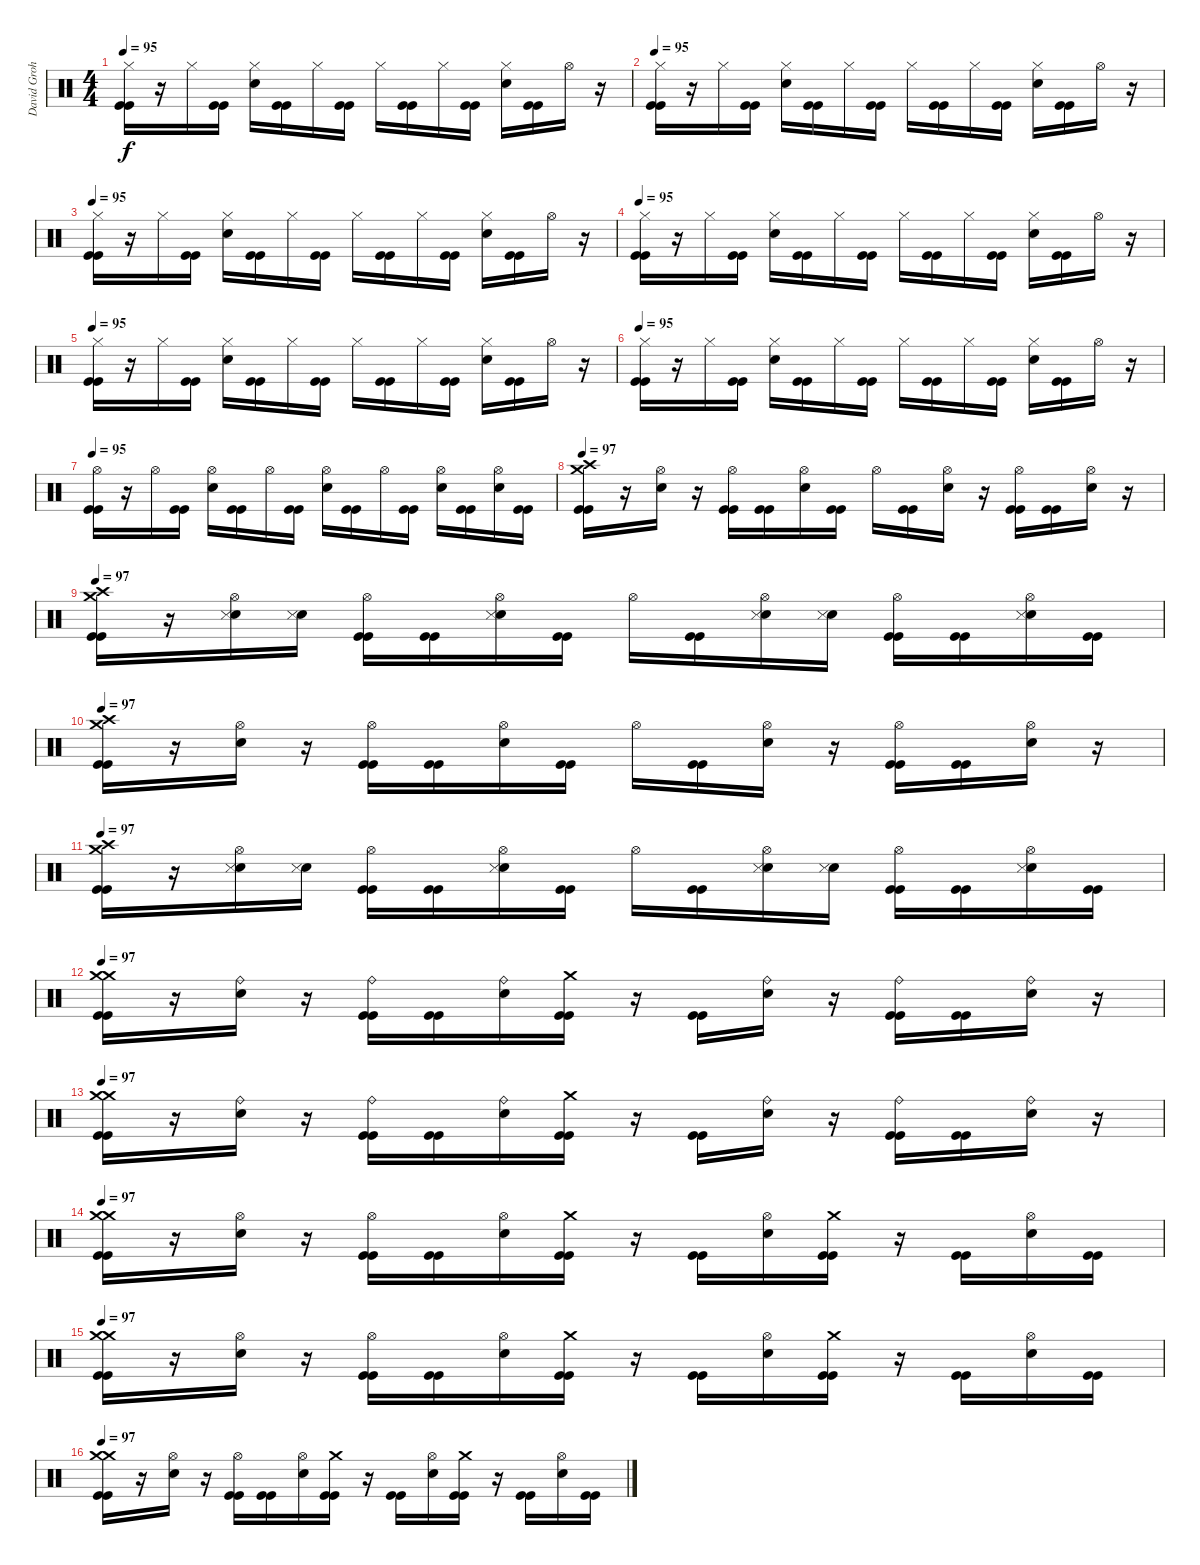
\track ("David Grohl/Alfredo Ortiz" "David Groh") {instrument percussion}
\staff {score}
\articulation defaults
\ts (4 4)
\tempo 95
\clef neutral
\ks c
("Hi-Hat (closed)" "Kick (hit)" "Kick (hit)").16{dy f} r.16 "Hi-Hat (closed)".16 ("Kick (hit)" "Kick (hit)").16 ("Hi-Hat (closed)" "Snare (hit) 2").16 ("Kick (hit)" "Kick (hit)").16 "Hi-Hat (closed)".16 ("Kick (hit)" "Kick (hit)").16 "Hi-Hat (closed)".16 ("Kick (hit)" "Kick (hit)").16 "Hi-Hat (closed)".16 ("Kick (hit)" "Kick (hit)").16 ("Hi-Hat (closed)" "Snare (hit) 2").16 ("Kick (hit)" "Kick (hit)").16 "Hi-Hat (open)".16 r.16 |
\tempo 95
("Hi-Hat (closed)" "Kick (hit)" "Kick (hit)").16 r.16 "Hi-Hat (closed)".16 ("Kick (hit)" "Kick (hit)").16 ("Hi-Hat (closed)" "Snare (hit) 2").16 ("Kick (hit)" "Kick (hit)").16 "Hi-Hat (closed)".16 ("Kick (hit)" "Kick (hit)").16 "Hi-Hat (closed)".16 ("Kick (hit)" "Kick (hit)").16 "Hi-Hat (closed)".16 ("Kick (hit)" "Kick (hit)").16 ("Hi-Hat (closed)" "Snare (hit) 2").16 ("Kick (hit)" "Kick (hit)").16 "Hi-Hat (open)".16 r.16 |
\tempo 95
("Hi-Hat (closed)" "Kick (hit)" "Kick (hit)").16 r.16 "Hi-Hat (closed)".16 ("Kick (hit)" "Kick (hit)").16 ("Hi-Hat (closed)" "Snare (hit) 2").16 ("Kick (hit)" "Kick (hit)").16 "Hi-Hat (closed)".16 ("Kick (hit)" "Kick (hit)").16 "Hi-Hat (closed)".16 ("Kick (hit)" "Kick (hit)").16 "Hi-Hat (closed)".16 ("Kick (hit)" "Kick (hit)").16 ("Hi-Hat (closed)" "Snare (hit) 2").16 ("Kick (hit)" "Kick (hit)").16 "Hi-Hat (open)".16 r.16 |
\tempo 95
("Hi-Hat (closed)" "Kick (hit)" "Kick (hit)").16 r.16 "Hi-Hat (closed)".16 ("Kick (hit)" "Kick (hit)").16 ("Hi-Hat (closed)" "Snare (hit) 2").16 ("Kick (hit)" "Kick (hit)").16 "Hi-Hat (closed)".16 ("Kick (hit)" "Kick (hit)").16 "Hi-Hat (closed)".16 ("Kick (hit)" "Kick (hit)").16 "Hi-Hat (closed)".16 ("Kick (hit)" "Kick (hit)").16 ("Hi-Hat (closed)" "Snare (hit) 2").16 ("Kick (hit)" "Kick (hit)").16 "Hi-Hat (open)".16 r.16 |
\tempo 95
("Hi-Hat (closed)" "Kick (hit)" "Kick (hit)").16 r.16 "Hi-Hat (closed)".16 ("Kick (hit)" "Kick (hit)").16 ("Hi-Hat (closed)" "Snare (hit) 2").16 ("Kick (hit)" "Kick (hit)").16 "Hi-Hat (closed)".16 ("Kick (hit)" "Kick (hit)").16 "Hi-Hat (closed)".16 ("Kick (hit)" "Kick (hit)").16 "Hi-Hat (closed)".16 ("Kick (hit)" "Kick (hit)").16 ("Hi-Hat (closed)" "Snare (hit) 2").16 ("Kick (hit)" "Kick (hit)").16 "Hi-Hat (open)".16 r.16 |
\tempo 95
("Hi-Hat (closed)" "Kick (hit)" "Kick (hit)").16 r.16 "Hi-Hat (closed)".16 ("Kick (hit)" "Kick (hit)").16 ("Hi-Hat (closed)" "Snare (hit) 2").16 ("Kick (hit)" "Kick (hit)").16 "Hi-Hat (closed)".16 ("Kick (hit)" "Kick (hit)").16 "Hi-Hat (closed)".16 ("Kick (hit)" "Kick (hit)").16 "Hi-Hat (closed)".16 ("Kick (hit)" "Kick (hit)").16 ("Hi-Hat (closed)" "Snare (hit) 2").16 ("Kick (hit)" "Kick (hit)").16 "Hi-Hat (open)".16 r.16 |
\tempo 95
("Hi-Hat (open)" "Kick (hit)" "Kick (hit)").16 r.16 "Hi-Hat (open)".16 ("Kick (hit)" "Kick (hit)").16 ("Hi-Hat (open)" "Snare (hit) 2").16 ("Kick (hit)" "Kick (hit)").16 "Hi-Hat (open)".16 ("Kick (hit)" "Kick (hit)").16 ("Hi-Hat (open)" "Snare (hit) 2").16 ("Kick (hit)" "Kick (hit)").16 "Hi-Hat (open)".16 ("Kick (hit)" "Kick (hit)").16 ("Hi-Hat (open)" "Snare (hit) 2").16 ("Kick (hit)" "Kick (hit)").16 ("Hi-Hat (open)" "Snare (hit) 2").16 ("Kick (hit)" "Kick (hit)").16 |
\tempo 97
("Crash medium (hit)" "Crash high (hit)" "Kick (hit)" "Kick (hit)").16 r.16 ("Hi-Hat (open)" "Snare (hit) 2").16 r.16 ("Hi-Hat (open)" "Kick (hit)" "Kick (hit)").16 ("Kick (hit)" "Kick (hit)").16 ("Hi-Hat (open)" "Snare (hit) 2").16 ("Kick (hit)" "Kick (hit)").16 "Hi-Hat (open)".16 ("Kick (hit)" "Kick (hit)").16 ("Hi-Hat (open)" "Snare (hit) 2").16 r.16 ("Hi-Hat (open)" "Kick (hit)" "Kick (hit)").16 ("Kick (hit)" "Kick (hit)").16 ("Hi-Hat (open)" "Snare (hit) 2").16 r.16 |
\tempo 97
("Crash medium (hit)" "Crash high (hit)" "Kick (hit)" "Kick (hit)").16 r.16 ("Hi-Hat (open)" "Hand Clap (hit)" "Snare (side stick) 3").16 ("Hand Clap (hit)" "Snare (side stick) 3").16 ("Hi-Hat (open)" "Kick (hit)" "Kick (hit)").16 ("Kick (hit)" "Kick (hit)").16 ("Hi-Hat (open)" "Hand Clap (hit)" "Snare (side stick) 3").16 ("Kick (hit)" "Kick (hit)").16 "Hi-Hat (open)".16 ("Kick (hit)" "Kick (hit)").16 ("Hi-Hat (open)" "Hand Clap (hit)" "Snare (side stick) 3").16 ("Hand Clap (hit)" "Snare (side stick) 3").16 ("Hi-Hat (open)" "Kick (hit)" "Kick (hit)").16 ("Kick (hit)" "Kick (hit)").16 ("Hi-Hat (open)" "Hand Clap (hit)" "Snare (side stick) 3").16 ("Kick (hit)" "Kick (hit)").16 |
\tempo 97
("Crash medium (hit)" "Crash high (hit)" "Kick (hit)" "Kick (hit)").16 r.16 ("Hi-Hat (open)" "Snare (hit) 2").16 r.16 ("Hi-Hat (open)" "Kick (hit)" "Kick (hit)").16 ("Kick (hit)" "Kick (hit)").16 ("Hi-Hat (open)" "Snare (hit) 2").16 ("Kick (hit)" "Kick (hit)").16 "Hi-Hat (open)".16 ("Kick (hit)" "Kick (hit)").16 ("Hi-Hat (open)" "Snare (hit) 2").16 r.16 ("Hi-Hat (open)" "Kick (hit)" "Kick (hit)").16 ("Kick (hit)" "Kick (hit)").16 ("Hi-Hat (open)" "Snare (hit) 2").16 r.16 |
\tempo 97
("Crash medium (hit)" "Crash high (hit)" "Kick (hit)" "Kick (hit)").16 r.16 ("Hi-Hat (open)" "Hand Clap (hit)" "Snare (side stick) 3").16 ("Hand Clap (hit)" "Snare (side stick) 3").16 ("Hi-Hat (open)" "Kick (hit)" "Kick (hit)").16 ("Kick (hit)" "Kick (hit)").16 ("Hi-Hat (open)" "Hand Clap (hit)" "Snare (side stick) 3").16 ("Kick (hit)" "Kick (hit)").16 "Hi-Hat (open)".16 ("Kick (hit)" "Kick (hit)").16 ("Hi-Hat (open)" "Hand Clap (hit)" "Snare (side stick) 3").16 ("Hand Clap (hit)" "Snare (side stick) 3").16 ("Hi-Hat (open)" "Kick (hit)" "Kick (hit)").16 ("Kick (hit)" "Kick (hit)").16 ("Hi-Hat (open)" "Hand Clap (hit)" "Snare (side stick) 3").16 ("Kick (hit)" "Kick (hit)").16 |
\tempo 97
("Crash medium (hit)" "Crash medium (hit)" "Kick (hit)" "Kick (hit)").16 r.16 ("Ride (bell)" "Snare (hit) 2").16 r.16 ("Ride (bell)" "Kick (hit)" "Kick (hit)").16 ("Kick (hit)" "Kick (hit)").16 ("Ride (bell)" "Snare (hit) 2").16 ("Crash medium (hit)" "Kick (hit)" "Kick (hit)").16 r.16 ("Kick (hit)" "Kick (hit)").16 ("Ride (bell)" "Snare (hit) 2").16 r.16 ("Ride (bell)" "Kick (hit)" "Kick (hit)").16 ("Kick (hit)" "Kick (hit)").16 ("Ride (bell)" "Snare (hit) 2").16 r.16 |
\tempo 97
("Crash medium (hit)" "Crash medium (hit)" "Kick (hit)" "Kick (hit)").16 r.16 ("Ride (bell)" "Snare (hit) 2").16 r.16 ("Ride (bell)" "Kick (hit)" "Kick (hit)").16 ("Kick (hit)" "Kick (hit)").16 ("Ride (bell)" "Snare (hit) 2").16 ("Crash medium (hit)" "Kick (hit)" "Kick (hit)").16 r.16 ("Kick (hit)" "Kick (hit)").16 ("Ride (bell)" "Snare (hit) 2").16 r.16 ("Ride (bell)" "Kick (hit)" "Kick (hit)").16 ("Kick (hit)" "Kick (hit)").16 ("Ride (bell)" "Snare (hit) 2").16 r.16 |
\tempo 97
("Crash medium (hit)" "Crash medium (hit)" "Kick (hit)" "Kick (hit)").16 r.16 ("Hi-Hat (open)" "Snare (hit) 2").16 r.16 ("Hi-Hat (open)" "Kick (hit)" "Kick (hit)").16 ("Kick (hit)" "Kick (hit)").16 ("Hi-Hat (open)" "Snare (hit) 2").16 ("Crash medium (hit)" "Kick (hit)" "Kick (hit)").16 r.16 ("Kick (hit)" "Kick (hit)").16 ("Hi-Hat (open)" "Snare (hit) 2").16 ("Crash medium (hit)" "Kick (hit)" "Kick (hit)").16 r.16 ("Kick (hit)" "Kick (hit)").16 ("Hi-Hat (open)" "Snare (hit) 2").16 ("Kick (hit)" "Kick (hit)").16 |
\tempo 97
("Crash medium (hit)" "Crash medium (hit)" "Kick (hit)" "Kick (hit)").16 r.16 ("Hi-Hat (open)" "Snare (hit) 2").16 r.16 ("Hi-Hat (open)" "Kick (hit)" "Kick (hit)").16 ("Kick (hit)" "Kick (hit)").16 ("Hi-Hat (open)" "Snare (hit) 2").16 ("Crash medium (hit)" "Kick (hit)" "Kick (hit)").16 r.16 ("Kick (hit)" "Kick (hit)").16 ("Hi-Hat (open)" "Snare (hit) 2").16 ("Crash medium (hit)" "Kick (hit)" "Kick (hit)").16 r.16 ("Kick (hit)" "Kick (hit)").16 ("Hi-Hat (open)" "Snare (hit) 2").16 ("Kick (hit)" "Kick (hit)").16 |
\tempo 97
("Crash medium (hit)" "Crash medium (hit)" "Kick (hit)" "Kick (hit)").16 r.16 ("Hi-Hat (open)" "Snare (hit) 2").16 r.16 ("Hi-Hat (open)" "Kick (hit)" "Kick (hit)").16 ("Kick (hit)" "Kick (hit)").16 ("Hi-Hat (open)" "Snare (hit) 2").16 ("Crash medium (hit)" "Kick (hit)" "Kick (hit)").16 r.16 ("Kick (hit)" "Kick (hit)").16 ("Hi-Hat (open)" "Snare (hit) 2").16 ("Crash medium (hit)" "Kick (hit)" "Kick (hit)").16 r.16 ("Kick (hit)" "Kick (hit)").16 ("Hi-Hat (open)" "Snare (hit) 2").16 ("Kick (hit)" "Kick (hit)").16
